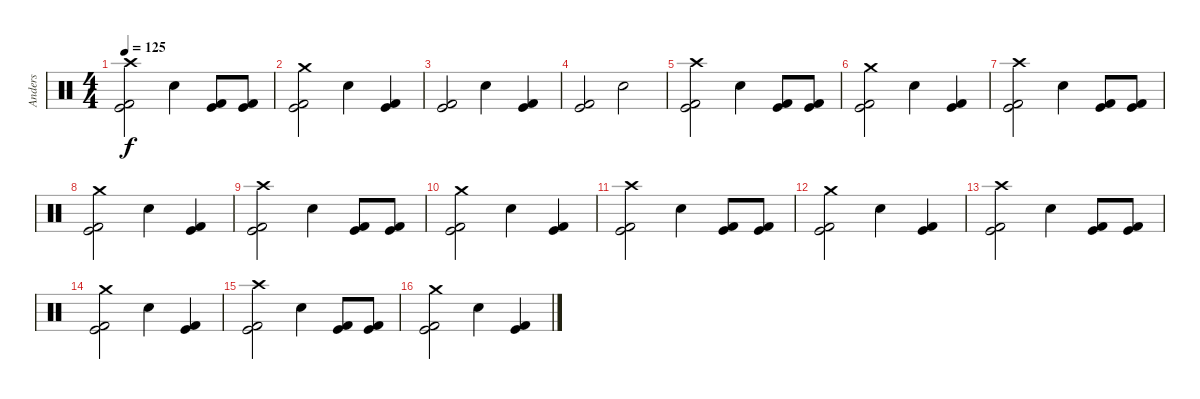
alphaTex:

\track ("Anders" "Anders") {instrument percussion}
\staff {score}
\articulation defaults
\ts (4 4)
\tempo 125
\clef neutral
\ks c
("Crash high (hit)" "Kick (hit) 2" "Kick (hit)").2{dy f} "Electric Snare (hit)".4 ("Kick (hit) 2" "Kick (hit)").8 ("Kick (hit) 2" "Kick (hit)").8 |
("Crash medium (hit)" "Kick (hit)" "Kick (hit) 2").2 "Electric Snare (hit)".4 ("Kick (hit) 2" "Kick (hit)").4 |
("Kick (hit) 2" "Kick (hit)").2 "Electric Snare (hit)".4 ("Kick (hit) 2" "Kick (hit)").4 |
("Kick (hit) 2" "Kick (hit)").2 "Electric Snare (hit)".2 |
("Crash high (hit)" "Kick (hit) 2" "Kick (hit)").2 "Electric Snare (hit)".4 ("Kick (hit) 2" "Kick (hit)").8 ("Kick (hit) 2" "Kick (hit)").8 |
("Crash medium (hit)" "Kick (hit)" "Kick (hit) 2").2 "Electric Snare (hit)".4 ("Kick (hit) 2" "Kick (hit)").4 |
("Crash high (hit)" "Kick (hit) 2" "Kick (hit)").2 "Electric Snare (hit)".4 ("Kick (hit) 2" "Kick (hit)").8 ("Kick (hit) 2" "Kick (hit)").8 |
("Crash medium (hit)" "Kick (hit)" "Kick (hit) 2").2 "Electric Snare (hit)".4 ("Kick (hit) 2" "Kick (hit)").4 |
("Crash high (hit)" "Kick (hit) 2" "Kick (hit)").2 "Electric Snare (hit)".4 ("Kick (hit) 2" "Kick (hit)").8 ("Kick (hit) 2" "Kick (hit)").8 |
("Crash medium (hit)" "Kick (hit)" "Kick (hit) 2").2 "Electric Snare (hit)".4 ("Kick (hit) 2" "Kick (hit)").4 |
("Crash high (hit)" "Kick (hit) 2" "Kick (hit)").2 "Electric Snare (hit)".4 ("Kick (hit) 2" "Kick (hit)").8 ("Kick (hit) 2" "Kick (hit)").8 |
("Crash medium (hit)" "Kick (hit)" "Kick (hit) 2").2 "Electric Snare (hit)".4 ("Kick (hit) 2" "Kick (hit)").4 |
("Crash high (hit)" "Kick (hit) 2" "Kick (hit)").2 "Electric Snare (hit)".4 ("Kick (hit) 2" "Kick (hit)").8 ("Kick (hit) 2" "Kick (hit)").8 |
("Crash medium (hit)" "Kick (hit)" "Kick (hit) 2").2 "Electric Snare (hit)".4 ("Kick (hit) 2" "Kick (hit)").4 |
("Crash high (hit)" "Kick (hit) 2" "Kick (hit)").2 "Electric Snare (hit)".4 ("Kick (hit) 2" "Kick (hit)").8 ("Kick (hit) 2" "Kick (hit)").8 |
("Crash medium (hit)" "Kick (hit)" "Kick (hit) 2").2 "Electric Snare (hit)".4 ("Kick (hit) 2" "Kick (hit)").4
